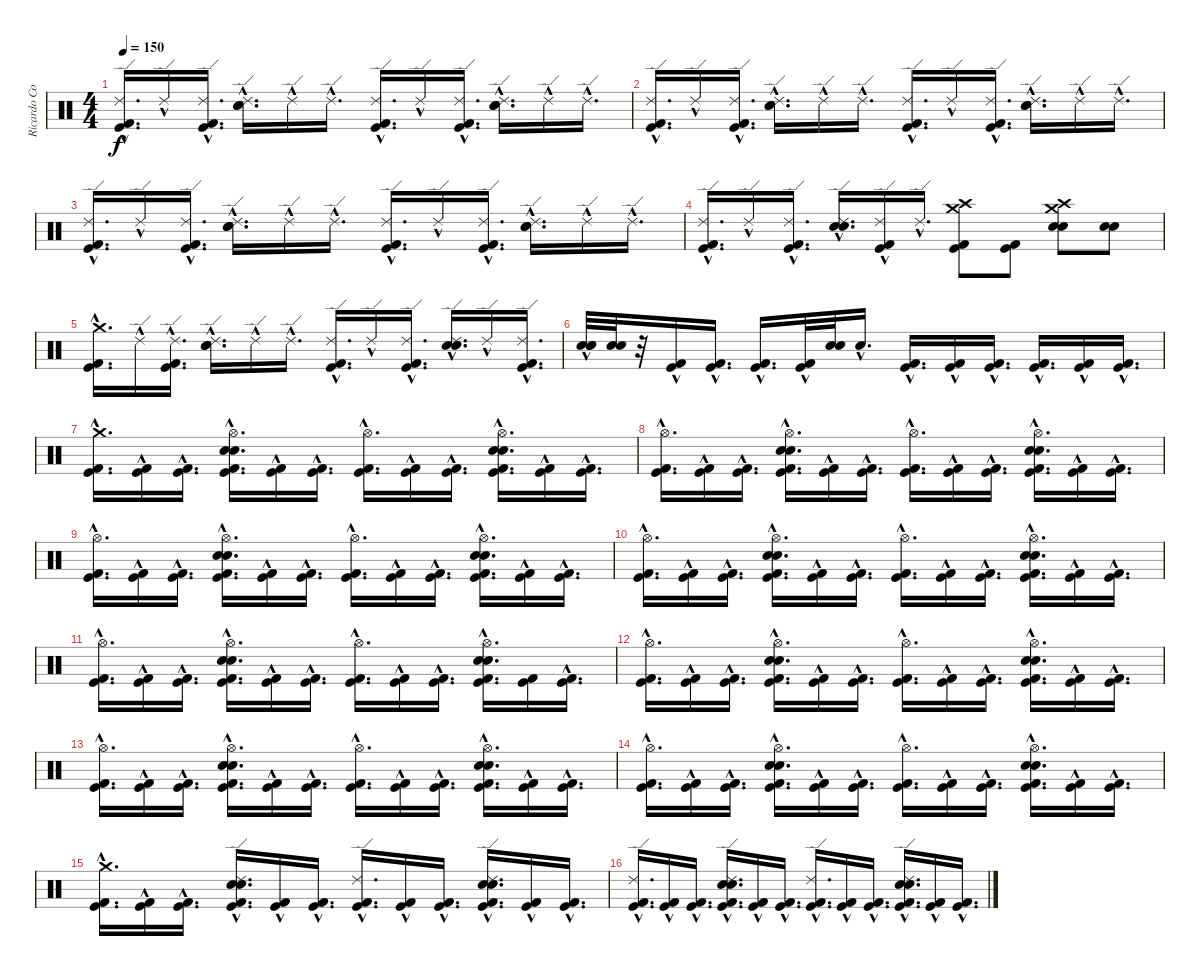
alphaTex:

\track ("Ricardo Confessori" "Ricardo Co") {instrument percussion}
\staff {score}
\articulation defaults
\ts (4 4)
\tempo 150
\clef neutral
\ks c
("Ride (edge) 2"{hac} "Kick (hit)" "Kick (hit) 2").16{d dy f} "Ride (edge) 2"{hac}.16 ("Kick (hit) 2"{hac} "Kick (hit)"{hac} "Ride (edge) 2"{hac}).16{d} ("Electric Snare (hit)" "Snare (hit) 2" "Ride (edge) 2"{hac}).16{d} "Ride (edge) 2"{hac}.16 "Ride (edge) 2"{hac}.16{d} ("Kick (hit) 2" "Kick (hit)" "Ride (edge) 2"{hac}).16{d} "Ride (edge) 2"{hac}.16 ("Kick (hit) 2"{hac} "Kick (hit)"{hac} "Ride (edge) 2"{hac}).16{d} ("Electric Snare (hit)" "Snare (hit) 2" "Ride (edge) 2"{hac}).16{d} "Ride (edge) 2"{hac}.16 "Ride (edge) 2"{hac}.16{d} |
("Ride (edge) 2"{hac} "Kick (hit)" "Kick (hit) 2").16{d} "Ride (edge) 2"{hac}.16 ("Kick (hit) 2"{hac} "Kick (hit)"{hac} "Ride (edge) 2"{hac}).16{d} ("Electric Snare (hit)" "Snare (hit) 2" "Ride (edge) 2"{hac}).16{d} "Ride (edge) 2"{hac}.16 "Ride (edge) 2"{hac}.16{d} ("Kick (hit) 2" "Kick (hit)" "Ride (edge) 2"{hac}).16{d} "Ride (edge) 2"{hac}.16 ("Kick (hit) 2"{hac} "Kick (hit)"{hac} "Ride (edge) 2"{hac}).16{d} ("Electric Snare (hit)" "Snare (hit) 2" "Ride (edge) 2"{hac}).16{d} "Ride (edge) 2"{hac}.16 "Ride (edge) 2"{hac}.16{d} |
("Ride (edge) 2"{hac} "Kick (hit) 2" "Kick (hit)").16{d} "Ride (edge) 2"{hac}.16 ("Kick (hit) 2"{hac} "Kick (hit)"{hac} "Ride (edge) 2"{hac}).16{d} ("Electric Snare (hit)" "Snare (hit) 2" "Ride (edge) 2"{hac}).16{d} "Ride (edge) 2"{hac}.16 "Ride (edge) 2"{hac}.16{d} ("Kick (hit) 2" "Kick (hit)" "Ride (edge) 2"{hac}).16{d} "Ride (edge) 2"{hac}.16 ("Kick (hit) 2"{hac} "Kick (hit)"{hac} "Ride (edge) 2"{hac}).16{d} ("Electric Snare (hit)" "Snare (hit) 2" "Ride (edge) 2"{hac}).16{d} "Ride (edge) 2"{hac}.16 "Ride (edge) 2"{hac}.16{d} |
("Ride (edge) 2"{hac} "Kick (hit)" "Kick (hit) 2").16{d} "Ride (edge) 2"{hac}.16 ("Kick (hit) 2"{hac} "Kick (hit)"{hac} "Ride (edge) 2"{hac}).16{d} ("Electric Snare (hit)" "Snare (hit) 2" "Ride (edge) 2"{hac}).16{d} ("Kick (hit) 2"{hac} "Kick (hit)"{hac} "Ride (edge) 2"{hac}).16 "Ride (edge) 2"{hac}.16{d} ("Crash high (hit)" "Crash medium (hit)" "Kick (hit) 2" "Kick (hit)").8 ("Kick (hit) 2" "Kick (hit)").8 ("Crash high (hit)" "Crash medium (hit)" "Electric Snare (hit)" "Snare (hit) 2").8 ("Electric Snare (hit)" "Snare (hit) 2").8 |
("Kick (hit)" "Kick (hit) 2" "Crash medium (hit)"{hac}).16{d} "Ride (edge) 2"{hac}.16 ("Kick (hit) 2"{hac} "Kick (hit)"{hac} "Ride (edge) 2"{hac}).16{d} ("Electric Snare (hit)" "Snare (hit) 2" "Ride (edge) 2"{hac}).16{d} "Ride (edge) 2"{hac}.16 "Ride (edge) 2"{hac}.16{d} ("Kick (hit) 2" "Kick (hit)" "Ride (edge) 2"{hac}).16{d} "Ride (edge) 2"{hac}.16 ("Kick (hit) 2"{hac} "Kick (hit)"{hac} "Ride (edge) 2"{hac}).16{d} ("Electric Snare (hit)" "Snare (hit) 2" "Ride (edge) 2"{hac}).16{d} "Ride (edge) 2"{hac}.16 ("Kick (hit) 2"{hac} "Kick (hit)"{hac} "Ride (edge) 2"{hac}).16{d} |
("Snare (hit)"{hac} "Electric Snare (hit)" "Snare (hit) 2").32 ("Electric Snare (hit)" "Snare (hit) 2").32 r.32 ("Kick (hit) 2"{hac} "Kick (hit)"{hac}).16 ("Kick (hit) 2"{hac} "Kick (hit)"{hac}).16{d} ("Kick (hit) 2"{hac} "Kick (hit)"{hac}).16{d} ("Kick (hit) 2"{hac} "Kick (hit)"{hac}).32 ("Electric Snare (hit)" "Snare (hit) 2").32 "Snare (hit)"{hac}.16{d} ("Kick (hit) 2"{hac} "Kick (hit)"{hac}).16{d} ("Kick (hit) 2"{hac} "Kick (hit)"{hac}).16 ("Kick (hit) 2"{hac} "Kick (hit)"{hac}).16{d} ("Kick (hit) 2"{hac} "Kick (hit)"{hac}).16{d} ("Kick (hit) 2"{hac} "Kick (hit)"{hac}).16 ("Kick (hit) 2"{hac} "Kick (hit)"{hac}).16{d} |
("Crash medium (hit)"{hac} "Kick (hit) 2"{hac} "Kick (hit)"{hac}).16{d} ("Kick (hit) 2"{hac} "Kick (hit)"{hac}).16 ("Kick (hit) 2"{hac} "Kick (hit)"{hac}).16{d} ("Hi-Hat (open)"{hac} "Electric Snare (hit)"{hac} "Snare (hit) 2"{hac} "Kick (hit)"{hac} "Kick (hit) 2"{hac}).16{d} ("Kick (hit) 2"{hac} "Kick (hit)"{hac}).16 ("Kick (hit) 2"{hac} "Kick (hit)"{hac}).16{d} ("Hi-Hat (open)"{hac} "Kick (hit) 2"{hac} "Kick (hit)"{hac}).16{d} ("Kick (hit) 2"{hac} "Kick (hit)"{hac}).16 ("Kick (hit) 2"{hac} "Kick (hit)"{hac}).16{d} ("Hi-Hat (open)"{hac} "Snare (hit) 2"{hac} "Electric Snare (hit)"{hac} "Kick (hit) 2"{hac} "Kick (hit)"{hac}).16{d} ("Kick (hit) 2"{hac} "Kick (hit)"{hac}).16 ("Kick (hit) 2"{hac} "Kick (hit)"{hac}).16{d} |
("Hi-Hat (open)"{hac} "Kick (hit) 2"{hac} "Kick (hit)"{hac}).16{d} ("Kick (hit) 2"{hac} "Kick (hit)"{hac}).16 ("Kick (hit) 2"{hac} "Kick (hit)"{hac}).16{d} ("Hi-Hat (open)"{hac} "Snare (hit) 2"{hac} "Electric Snare (hit)"{hac} "Kick (hit) 2"{hac} "Kick (hit)"{hac}).16{d} ("Kick (hit) 2"{hac} "Kick (hit)"{hac}).16 ("Kick (hit) 2"{hac} "Kick (hit)"{hac}).16{d} ("Hi-Hat (open)"{hac} "Kick (hit) 2"{hac} "Kick (hit)"{hac}).16{d} ("Kick (hit) 2"{hac} "Kick (hit)"{hac}).16 ("Kick (hit) 2"{hac} "Kick (hit)"{hac}).16{d} ("Hi-Hat (open)"{hac} "Electric Snare (hit)"{hac} "Snare (hit) 2"{hac} "Kick (hit) 2"{hac} "Kick (hit)"{hac}).16{d} ("Kick (hit) 2"{hac} "Kick (hit)"{hac}).16 ("Kick (hit) 2"{hac} "Kick (hit)"{hac}).16{d} |
("Hi-Hat (open)"{hac} "Kick (hit) 2"{hac} "Kick (hit)"{hac}).16{d} ("Kick (hit) 2"{hac} "Kick (hit)"{hac}).16 ("Kick (hit) 2"{hac} "Kick (hit)"{hac}).16{d} ("Hi-Hat (open)"{hac} "Snare (hit) 2"{hac} "Electric Snare (hit)"{hac} "Kick (hit) 2"{hac} "Kick (hit)"{hac}).16{d} ("Kick (hit) 2"{hac} "Kick (hit)"{hac}).16 ("Kick (hit) 2"{hac} "Kick (hit)"{hac}).16{d} ("Hi-Hat (open)"{hac} "Kick (hit) 2"{hac} "Kick (hit)"{hac}).16{d} ("Kick (hit) 2"{hac} "Kick (hit)"{hac}).16 ("Kick (hit) 2"{hac} "Kick (hit)"{hac}).16{d} ("Hi-Hat (open)"{hac} "Electric Snare (hit)"{hac} "Snare (hit) 2"{hac} "Kick (hit) 2"{hac} "Kick (hit)"{hac}).16{d} ("Kick (hit) 2"{hac} "Kick (hit)"{hac}).16 ("Kick (hit) 2"{hac} "Kick (hit)"{hac}).16{d} |
("Hi-Hat (open)"{hac} "Kick (hit) 2"{hac} "Kick (hit)"{hac}).16{d} ("Kick (hit) 2"{hac} "Kick (hit)"{hac}).16 ("Kick (hit) 2"{hac} "Kick (hit)"{hac}).16{d} ("Hi-Hat (open)"{hac} "Snare (hit) 2"{hac} "Electric Snare (hit)"{hac} "Kick (hit) 2"{hac} "Kick (hit)"{hac}).16{d} ("Kick (hit) 2"{hac} "Kick (hit)"{hac}).16 ("Kick (hit) 2"{hac} "Kick (hit)"{hac}).16{d} ("Hi-Hat (open)"{hac} "Kick (hit) 2"{hac} "Kick (hit)"{hac}).16{d} ("Kick (hit) 2"{hac} "Kick (hit)"{hac}).16 ("Kick (hit) 2"{hac} "Kick (hit)"{hac}).16{d} ("Hi-Hat (open)"{hac} "Electric Snare (hit)"{hac} "Snare (hit) 2"{hac} "Kick (hit) 2"{hac} "Kick (hit)"{hac}).16{d} ("Kick (hit) 2"{hac} "Kick (hit)"{hac}).16 ("Kick (hit) 2"{hac} "Kick (hit)"{hac}).16{d} |
("Hi-Hat (open)"{hac} "Kick (hit) 2"{hac} "Kick (hit)"{hac}).16{d} ("Kick (hit) 2"{hac} "Kick (hit)"{hac}).16 ("Kick (hit) 2"{hac} "Kick (hit)"{hac}).16{d} ("Hi-Hat (open)"{hac} "Snare (hit) 2"{hac} "Electric Snare (hit)"{hac} "Kick (hit) 2"{hac} "Kick (hit)"{hac}).16{d} ("Kick (hit) 2"{hac} "Kick (hit)"{hac}).16 ("Kick (hit) 2"{hac} "Kick (hit)"{hac}).16{d} ("Hi-Hat (open)"{hac} "Kick (hit) 2"{hac} "Kick (hit)"{hac}).16{d} ("Kick (hit) 2"{hac} "Kick (hit)"{hac}).16 ("Kick (hit) 2"{hac} "Kick (hit)"{hac}).16{d} ("Hi-Hat (open)"{hac} "Electric Snare (hit)"{hac} "Snare (hit) 2"{hac} "Kick (hit) 2"{hac} "Kick (hit)"{hac}).16{d} ("Kick (hit) 2" "Kick (hit)").16 ("Kick (hit) 2"{hac} "Kick (hit)"{hac}).16{d} |
("Hi-Hat (open)"{hac} "Kick (hit) 2" "Kick (hit)").16{d} ("Kick (hit) 2"{hac} "Kick (hit)"{hac}).16 ("Kick (hit) 2"{hac} "Kick (hit)"{hac}).16{d} ("Hi-Hat (open)"{hac} "Snare (hit) 2"{hac} "Electric Snare (hit)"{hac} "Kick (hit) 2"{hac} "Kick (hit)"{hac}).16{d} ("Kick (hit) 2"{hac} "Kick (hit)"{hac}).16 ("Kick (hit) 2"{hac} "Kick (hit)"{hac}).16{d} ("Hi-Hat (open)"{hac} "Kick (hit) 2"{hac} "Kick (hit)"{hac}).16{d} ("Kick (hit) 2"{hac} "Kick (hit)"{hac}).16 ("Kick (hit) 2"{hac} "Kick (hit)"{hac}).16{d} ("Hi-Hat (open)"{hac} "Electric Snare (hit)"{hac} "Snare (hit) 2"{hac} "Kick (hit) 2"{hac} "Kick (hit)"{hac}).16{d} ("Kick (hit) 2"{hac} "Kick (hit)"{hac}).16 ("Kick (hit) 2"{hac} "Kick (hit)"{hac}).16{d} |
("Hi-Hat (open)"{hac} "Kick (hit) 2"{hac} "Kick (hit)"{hac}).16{d} ("Kick (hit) 2"{hac} "Kick (hit)"{hac}).16 ("Kick (hit) 2"{hac} "Kick (hit)"{hac}).16{d} ("Hi-Hat (open)"{hac} "Snare (hit) 2"{hac} "Electric Snare (hit)"{hac} "Kick (hit) 2"{hac} "Kick (hit)"{hac}).16{d} ("Kick (hit) 2"{hac} "Kick (hit)"{hac}).16 ("Kick (hit) 2"{hac} "Kick (hit)"{hac}).16{d} ("Hi-Hat (open)"{hac} "Kick (hit) 2"{hac} "Kick (hit)"{hac}).16{d} ("Kick (hit) 2"{hac} "Kick (hit)"{hac}).16 ("Kick (hit) 2"{hac} "Kick (hit)"{hac}).16{d} ("Hi-Hat (open)"{hac} "Electric Snare (hit)"{hac} "Snare (hit) 2"{hac} "Kick (hit) 2"{hac} "Kick (hit)"{hac}).16{d} ("Kick (hit) 2"{hac} "Kick (hit)"{hac}).16 ("Kick (hit) 2"{hac} "Kick (hit)"{hac}).16{d} |
("Hi-Hat (open)"{hac} "Kick (hit) 2"{hac} "Kick (hit)"{hac}).16{d} ("Kick (hit) 2"{hac} "Kick (hit)"{hac}).16 ("Kick (hit) 2"{hac} "Kick (hit)"{hac}).16{d} ("Hi-Hat (open)"{hac} "Snare (hit) 2"{hac} "Electric Snare (hit)"{hac} "Kick (hit) 2"{hac} "Kick (hit)"{hac}).16{d} ("Kick (hit) 2"{hac} "Kick (hit)"{hac}).16 ("Kick (hit) 2"{hac} "Kick (hit)"{hac}).16{d} ("Hi-Hat (open)"{hac} "Kick (hit) 2"{hac} "Kick (hit)"{hac}).16{d} ("Kick (hit) 2"{hac} "Kick (hit)"{hac}).16 ("Kick (hit) 2"{hac} "Kick (hit)"{hac}).16{d} ("Hi-Hat (open)"{hac} "Electric Snare (hit)"{hac} "Snare (hit) 2"{hac} "Kick (hit) 2"{hac} "Kick (hit)"{hac}).16{d} ("Kick (hit) 2"{hac} "Kick (hit)"{hac}).16 ("Kick (hit) 2"{hac} "Kick (hit)"{hac}).16{d} |
("Crash medium (hit)"{hac} "Kick (hit) 2"{hac} "Kick (hit)"{hac}).16{d} ("Kick (hit) 2"{hac} "Kick (hit)"{hac}).16 ("Kick (hit) 2"{hac} "Kick (hit)"{hac}).16{d} ("Snare (hit) 2"{hac} "Electric Snare (hit)"{hac} "Kick (hit) 2"{hac} "Ride (edge) 2"{hac} "Kick (hit)"{hac}).16{d} ("Kick (hit) 2"{hac} "Kick (hit)"{hac}).16 ("Kick (hit) 2"{hac} "Kick (hit)"{hac}).16{d} ("Kick (hit) 2"{hac} "Ride (edge) 2"{hac} "Kick (hit)"{hac}).16{d} ("Kick (hit) 2"{hac} "Kick (hit)"{hac}).16 ("Kick (hit) 2"{hac} "Kick (hit)"{hac}).16{d} ("Electric Snare (hit)"{hac} "Snare (hit) 2"{hac} "Kick (hit) 2"{hac} "Ride (edge) 2"{hac} "Kick (hit)"{hac}).16{d} ("Kick (hit) 2"{hac} "Kick (hit)"{hac}).16 ("Kick (hit) 2"{hac} "Kick (hit)"{hac}).16{d} |
("Kick (hit) 2"{hac} "Ride (edge) 2"{hac} "Kick (hit)"{hac}).16{d} ("Kick (hit) 2"{hac} "Kick (hit)"{hac}).16 ("Kick (hit) 2"{hac} "Kick (hit)"{hac}).16{d} ("Snare (hit) 2"{hac} "Electric Snare (hit)"{hac} "Kick (hit) 2"{hac} "Ride (edge) 2"{hac} "Kick (hit)"{hac}).16{d} ("Kick (hit) 2"{hac} "Kick (hit)"{hac}).16 ("Kick (hit) 2"{hac} "Kick (hit)"{hac}).16{d} ("Kick (hit) 2"{hac} "Ride (edge) 2"{hac} "Kick (hit)"{hac}).16{d} ("Kick (hit) 2"{hac} "Kick (hit)"{hac}).16 ("Kick (hit) 2"{hac} "Kick (hit)"{hac}).16{d} ("Electric Snare (hit)"{hac} "Snare (hit) 2"{hac} "Kick (hit) 2"{hac} "Ride (edge) 2"{hac} "Kick (hit)"{hac}).16{d} ("Kick (hit) 2"{hac} "Kick (hit)"{hac}).16 ("Kick (hit) 2"{hac} "Kick (hit)"{hac}).16{d}
